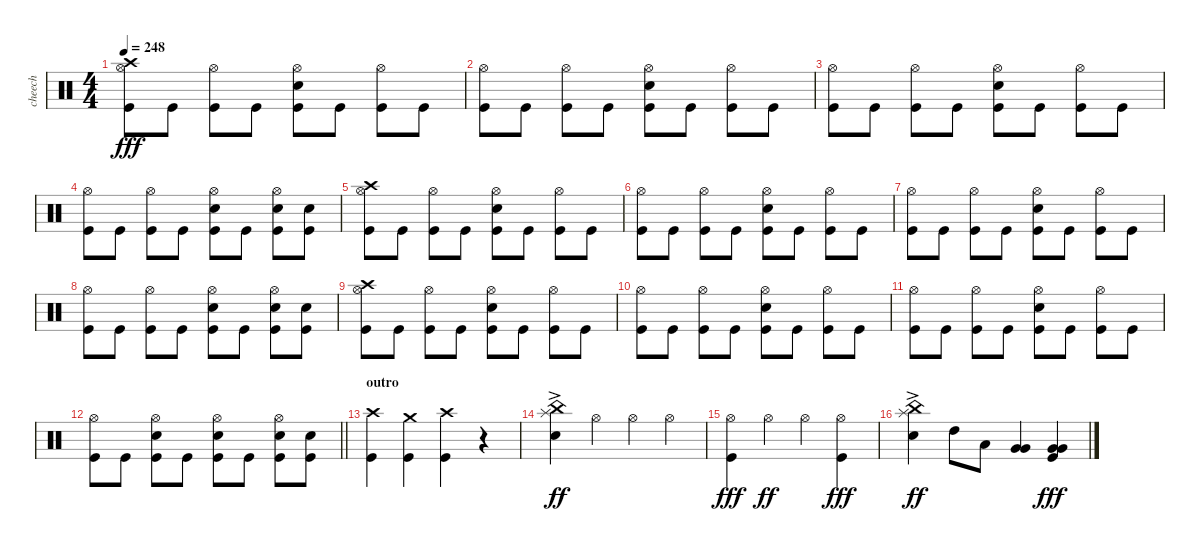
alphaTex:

\track ("cheech" "cheech") {instrument percussion}
\staff {score}
\articulation defaults
\ts (4 4)
\tempo 248
\clef neutral
\ks c
("Hi-Hat (open)" "Crash high (hit)" "Kick (hit)").8{dy fff} "Kick (hit)".8 ("Hi-Hat (open)" "Kick (hit)").8 "Kick (hit)".8 ("Hi-Hat (open)" "Electric Snare (hit)" "Kick (hit)").8 "Kick (hit)".8 ("Hi-Hat (open)" "Kick (hit)").8 "Kick (hit)".8 |
("Hi-Hat (open)" "Kick (hit)").8 "Kick (hit)".8 ("Hi-Hat (open)" "Kick (hit)").8 "Kick (hit)".8 ("Hi-Hat (open)" "Electric Snare (hit)" "Kick (hit)").8 "Kick (hit)".8 ("Hi-Hat (open)" "Kick (hit)").8 "Kick (hit)".8 |
("Hi-Hat (open)" "Kick (hit)").8 "Kick (hit)".8 ("Hi-Hat (open)" "Kick (hit)").8 "Kick (hit)".8 ("Hi-Hat (open)" "Electric Snare (hit)" "Kick (hit)").8 "Kick (hit)".8 ("Hi-Hat (open)" "Kick (hit)").8 "Kick (hit)".8 |
("Hi-Hat (open)" "Kick (hit)").8 "Kick (hit)".8 ("Hi-Hat (open)" "Kick (hit)").8 "Kick (hit)".8 ("Hi-Hat (open)" "Electric Snare (hit)" "Kick (hit)").8 "Kick (hit)".8 ("Hi-Hat (open)" "Electric Snare (hit)" "Kick (hit)").8 ("Electric Snare (hit)" "Kick (hit)").8 |
("Hi-Hat (open)" "Crash high (hit)" "Kick (hit)").8 "Kick (hit)".8 ("Hi-Hat (open)" "Kick (hit)").8 "Kick (hit)".8 ("Hi-Hat (open)" "Electric Snare (hit)" "Kick (hit)").8 "Kick (hit)".8 ("Hi-Hat (open)" "Kick (hit)").8 "Kick (hit)".8 |
("Hi-Hat (open)" "Kick (hit)").8 "Kick (hit)".8 ("Hi-Hat (open)" "Kick (hit)").8 "Kick (hit)".8 ("Hi-Hat (open)" "Electric Snare (hit)" "Kick (hit)").8 "Kick (hit)".8 ("Hi-Hat (open)" "Kick (hit)").8 "Kick (hit)".8 |
("Hi-Hat (open)" "Kick (hit)").8 "Kick (hit)".8 ("Hi-Hat (open)" "Kick (hit)").8 "Kick (hit)".8 ("Hi-Hat (open)" "Electric Snare (hit)" "Kick (hit)").8 "Kick (hit)".8 ("Hi-Hat (open)" "Kick (hit)").8 "Kick (hit)".8 |
("Hi-Hat (open)" "Kick (hit)").8 "Kick (hit)".8 ("Hi-Hat (open)" "Kick (hit)").8 "Kick (hit)".8 ("Hi-Hat (open)" "Electric Snare (hit)" "Kick (hit)").8 "Kick (hit)".8 ("Hi-Hat (open)" "Electric Snare (hit)" "Kick (hit)").8 ("Electric Snare (hit)" "Kick (hit)").8 |
("Hi-Hat (open)" "Crash high (hit)" "Kick (hit)").8 "Kick (hit)".8 ("Hi-Hat (open)" "Kick (hit)").8 "Kick (hit)".8 ("Hi-Hat (open)" "Electric Snare (hit)" "Kick (hit)").8 "Kick (hit)".8 ("Hi-Hat (open)" "Kick (hit)").8 "Kick (hit)".8 |
("Hi-Hat (open)" "Kick (hit)").8 "Kick (hit)".8 ("Hi-Hat (open)" "Kick (hit)").8 "Kick (hit)".8 ("Hi-Hat (open)" "Electric Snare (hit)" "Kick (hit)").8 "Kick (hit)".8 ("Hi-Hat (open)" "Kick (hit)").8 "Kick (hit)".8 |
("Hi-Hat (open)" "Kick (hit)").8 "Kick (hit)".8 ("Hi-Hat (open)" "Kick (hit)").8 "Kick (hit)".8 ("Hi-Hat (open)" "Electric Snare (hit)" "Kick (hit)").8 "Kick (hit)".8 ("Hi-Hat (open)" "Kick (hit)").8 "Kick (hit)".8 |
\barLineRight lightlight
("Hi-Hat (open)" "Kick (hit)").8 "Kick (hit)".8 ("Hi-Hat (open)" "Electric Snare (hit)" "Kick (hit)").8 "Kick (hit)".8 ("Hi-Hat (open)" "Electric Snare (hit)" "Kick (hit)").8 "Kick (hit)".8 ("Hi-Hat (open)" "Electric Snare (hit)" "Kick (hit)").8 ("Electric Snare (hit)" "Kick (hit)").8 |
\section ("" "outro")
("Crash high (hit)" "Kick (hit)").4 ("Crash medium (hit)" "Kick (hit)").4 ("Crash high (hit)" "Kick (hit)").4 r.4 |
("China (hit)"{ac} "Splash (hit)"{ac} "Electric Snare (hit)").4{dy ff} "Hi-Hat (open)".4 "Hi-Hat (open)".4 "Hi-Hat (open)".4 |
("Hi-Hat (open)" "Kick (hit)").4{dy fff} "Hi-Hat (open)".4{dy ff} "Hi-Hat (open)".4 ("Hi-Hat (open)" "Kick (hit)").4{dy fff} |
("China (hit)"{ac} "Splash (hit)"{ac} "Electric Snare (hit)").4{dy ff} "High Tom (hit)".8 "Low Tom (hit)".8 ("Very Low Tom (hit)" "Very Low Tom (hit)").4 ("Very Low Tom (hit)" "Very Low Tom (hit)" "Kick (hit)").4{dy fff}
